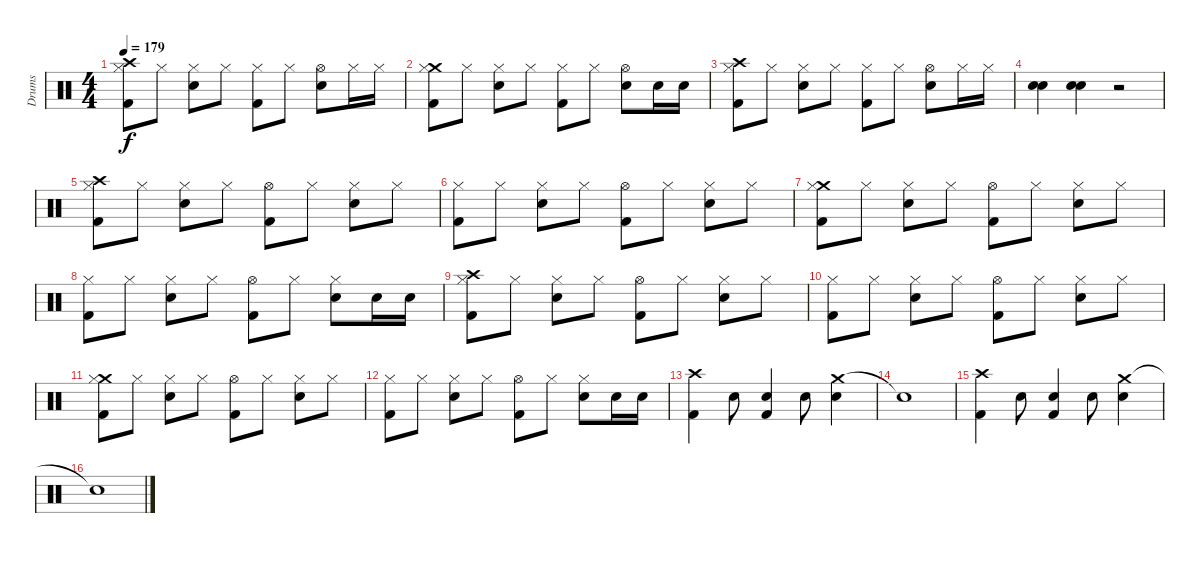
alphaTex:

\track ("Drums" "Drums") {instrument percussion}
\staff {score}
\articulation defaults
\ts (4 4)
\tempo 179
\clef neutral
\ks c
("Crash high (hit)" "Hi-Hat (closed)" "Kick (hit) 2").8{dy f} "Hi-Hat (closed)".8 ("Hi-Hat (closed)" "Electric Snare (hit)").8 "Hi-Hat (closed)".8 ("Hi-Hat (closed)" "Kick (hit) 2").8 "Hi-Hat (closed)".8 ("Hi-Hat (open)" "Electric Snare (hit)").8 "Hi-Hat (closed)".16 "Hi-Hat (closed)".16 |
("Crash medium (hit)" "Hi-Hat (closed)" "Kick (hit) 2").8 "Hi-Hat (closed)".8 ("Hi-Hat (closed)" "Electric Snare (hit)").8 "Hi-Hat (closed)".8 ("Hi-Hat (closed)" "Kick (hit) 2").8 "Hi-Hat (closed)".8 ("Hi-Hat (open)" "Electric Snare (hit)").8 "Electric Snare (hit)".16 "Electric Snare (hit)".16 |
("Crash high (hit)" "Hi-Hat (closed)" "Kick (hit) 2").8 "Hi-Hat (closed)".8 ("Hi-Hat (closed)" "Electric Snare (hit)").8 "Hi-Hat (closed)".8 ("Hi-Hat (closed)" "Kick (hit) 2").8 "Hi-Hat (closed)".8 ("Hi-Hat (open)" "Electric Snare (hit)").8 "Hi-Hat (closed)".16 "Hi-Hat (closed)".16 |
("Electric Snare (hit)" "Electric Snare (hit)").4 ("Electric Snare (hit)" "Electric Snare (hit)").4 r.2 |
("Kick (hit) 2" "Crash high (hit)" "Hi-Hat (closed)").8 "Hi-Hat (closed)".8 ("Electric Snare (hit)" "Hi-Hat (closed)").8 "Hi-Hat (closed)".8 ("Kick (hit) 2" "Hi-Hat (open)").8 "Hi-Hat (closed)".8 ("Electric Snare (hit)" "Hi-Hat (closed)").8 "Hi-Hat (closed)".8 |
("Kick (hit) 2" "Hi-Hat (closed)").8 "Hi-Hat (closed)".8 ("Electric Snare (hit)" "Hi-Hat (closed)").8 "Hi-Hat (closed)".8 ("Kick (hit) 2" "Hi-Hat (open)").8 "Hi-Hat (closed)".8 ("Electric Snare (hit)" "Hi-Hat (closed)").8 "Hi-Hat (closed)".8 |
("Kick (hit) 2" "Crash medium (hit)" "Hi-Hat (closed)").8 "Hi-Hat (closed)".8 ("Electric Snare (hit)" "Hi-Hat (closed)").8 "Hi-Hat (closed)".8 ("Kick (hit) 2" "Hi-Hat (open)").8 "Hi-Hat (closed)".8 ("Electric Snare (hit)" "Hi-Hat (closed)").8 "Hi-Hat (closed)".8 |
("Kick (hit) 2" "Hi-Hat (closed)").8 "Hi-Hat (closed)".8 ("Electric Snare (hit)" "Hi-Hat (closed)").8 "Hi-Hat (closed)".8 ("Kick (hit) 2" "Hi-Hat (open)").8 "Hi-Hat (closed)".8 ("Electric Snare (hit)" "Hi-Hat (closed)").8 "Electric Snare (hit)".16 "Electric Snare (hit)".16 |
("Kick (hit) 2" "Crash high (hit)" "Hi-Hat (closed)").8 "Hi-Hat (closed)".8 ("Electric Snare (hit)" "Hi-Hat (closed)").8 "Hi-Hat (closed)".8 ("Kick (hit) 2" "Hi-Hat (open)").8 "Hi-Hat (closed)".8 ("Electric Snare (hit)" "Hi-Hat (closed)").8 "Hi-Hat (closed)".8 |
("Kick (hit) 2" "Hi-Hat (closed)").8 "Hi-Hat (closed)".8 ("Electric Snare (hit)" "Hi-Hat (closed)").8 "Hi-Hat (closed)".8 ("Kick (hit) 2" "Hi-Hat (open)").8 "Hi-Hat (closed)".8 ("Electric Snare (hit)" "Hi-Hat (closed)").8 "Hi-Hat (closed)".8 |
("Kick (hit) 2" "Crash medium (hit)" "Hi-Hat (closed)").8 "Hi-Hat (closed)".8 ("Electric Snare (hit)" "Hi-Hat (closed)").8 "Hi-Hat (closed)".8 ("Kick (hit) 2" "Hi-Hat (open)").8 "Hi-Hat (closed)".8 ("Electric Snare (hit)" "Hi-Hat (closed)").8 "Hi-Hat (closed)".8 |
("Kick (hit) 2" "Hi-Hat (closed)").8 "Hi-Hat (closed)".8 ("Electric Snare (hit)" "Hi-Hat (closed)").8 "Hi-Hat (closed)".8 ("Kick (hit) 2" "Hi-Hat (open)").8 "Hi-Hat (closed)".8 ("Electric Snare (hit)" "Hi-Hat (closed)").8 "Electric Snare (hit)".16 "Electric Snare (hit)".16 |
("Crash high (hit)" "Kick (hit) 2").4 "Electric Snare (hit)".8 ("Kick (hit) 2" "Electric Snare (hit)").4 "Electric Snare (hit)".8 ("Crash medium (hit)" "Electric Snare (hit)").4 |
"Snare (hit)"{t}.1 |
("Crash high (hit)" "Kick (hit) 2").4 "Electric Snare (hit)".8 ("Kick (hit) 2" "Electric Snare (hit)").4 "Electric Snare (hit)".8 ("Crash medium (hit)" "Electric Snare (hit)").4 |
"Snare (hit)"{t}.1
